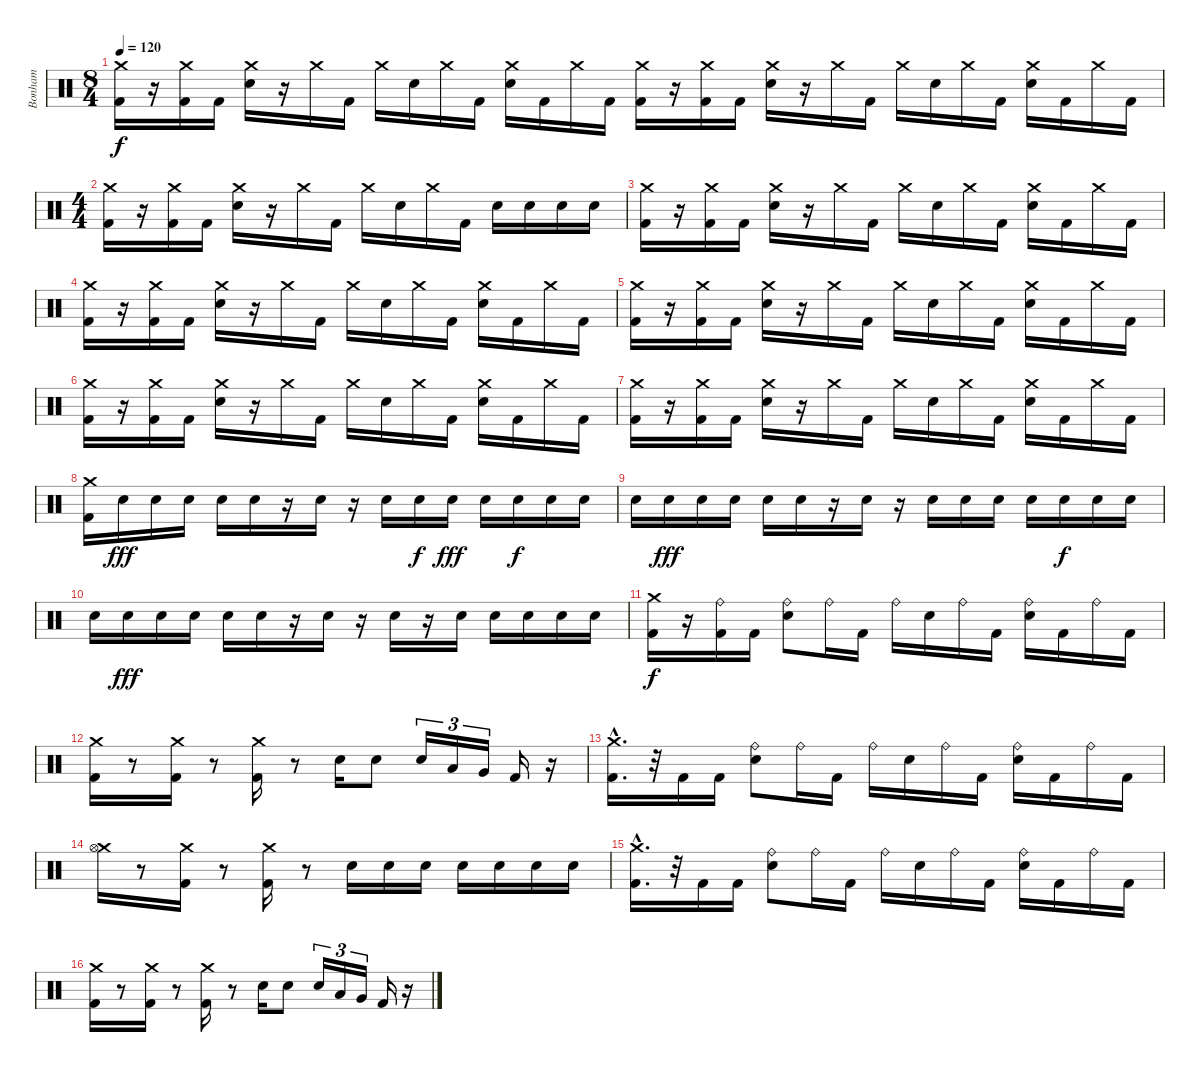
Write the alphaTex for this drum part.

\track ("Bonham" "Bonham") {instrument percussion}
\staff {score}
\articulation defaults
\ts (8 4)
\tempo 120
\clef neutral
\ks c
("Kick (hit) 2" "Crash medium (hit)").16{dy f} r.16 ("Crash medium (hit)" "Kick (hit) 2").16 "Kick (hit) 2".16 ("Crash medium (hit)" "Electric Snare (hit)").16 r.16 "Crash medium (hit)".16 "Kick (hit) 2".16 "Crash medium (hit)".16 "Electric Snare (hit)".16 "Crash medium (hit)".16 "Kick (hit) 2".16 ("Crash medium (hit)" "Electric Snare (hit)").16 "Kick (hit) 2".16 "Crash medium (hit)".16 "Kick (hit) 2".16 ("Kick (hit) 2" "Crash medium (hit)").16 r.16 ("Crash medium (hit)" "Kick (hit) 2").16 "Kick (hit) 2".16 ("Crash medium (hit)" "Electric Snare (hit)").16 r.16 "Crash medium (hit)".16 "Kick (hit) 2".16 "Crash medium (hit)".16 "Electric Snare (hit)".16 "Crash medium (hit)".16 "Kick (hit) 2".16 ("Crash medium (hit)" "Electric Snare (hit)").16 "Kick (hit) 2".16 "Crash medium (hit)".16 "Kick (hit) 2".16 |
\ts (4 4)
("Kick (hit) 2" "Crash medium (hit)").16 r.16 ("Crash medium (hit)" "Kick (hit) 2").16 "Kick (hit) 2".16 ("Crash medium (hit)" "Electric Snare (hit)").16 r.16 "Crash medium (hit)".16 "Kick (hit) 2".16 "Crash medium (hit)".16 "Electric Snare (hit)".16 "Crash medium (hit)".16 "Kick (hit) 2".16 "Electric Snare (hit)".16 "Electric Snare (hit)".16 "Electric Snare (hit)".16 "Electric Snare (hit)".16 |
("Crash medium (hit)" "Kick (hit) 2").16 r.16 ("Crash medium (hit)" "Kick (hit) 2").16 "Kick (hit) 2".16 ("Crash medium (hit)" "Electric Snare (hit)").16 r.16 "Crash medium (hit)".16 "Kick (hit) 2".16 "Crash medium (hit)".16 "Electric Snare (hit)".16 "Crash medium (hit)".16 "Kick (hit) 2".16 ("Crash medium (hit)" "Electric Snare (hit)").16 "Kick (hit) 2".16 "Crash medium (hit)".16 "Kick (hit) 2".16 |
("Kick (hit) 2" "Crash medium (hit)").16 r.16 ("Crash medium (hit)" "Kick (hit) 2").16 "Kick (hit) 2".16 ("Crash medium (hit)" "Electric Snare (hit)").16 r.16 "Crash medium (hit)".16 "Kick (hit) 2".16 "Crash medium (hit)".16 "Electric Snare (hit)".16 "Crash medium (hit)".16 "Kick (hit) 2".16 ("Crash medium (hit)" "Electric Snare (hit)").16 "Kick (hit) 2".16 "Crash medium (hit)".16 "Kick (hit) 2".16 |
("Crash medium (hit)" "Kick (hit) 2").16 r.16 ("Crash medium (hit)" "Kick (hit) 2").16 "Kick (hit) 2".16 ("Crash medium (hit)" "Electric Snare (hit)").16 r.16 "Crash medium (hit)".16 "Kick (hit) 2".16 "Crash medium (hit)".16 "Electric Snare (hit)".16 "Crash medium (hit)".16 "Kick (hit) 2".16 ("Crash medium (hit)" "Electric Snare (hit)").16 "Kick (hit) 2".16 "Crash medium (hit)".16 "Kick (hit) 2".16 |
("Crash medium (hit)" "Kick (hit) 2").16 r.16 ("Crash medium (hit)" "Kick (hit) 2").16 "Kick (hit) 2".16 ("Crash medium (hit)" "Electric Snare (hit)").16 r.16 "Crash medium (hit)".16 "Kick (hit) 2".16 "Crash medium (hit)".16 "Electric Snare (hit)".16 "Crash medium (hit)".16 "Kick (hit) 2".16 ("Crash medium (hit)" "Electric Snare (hit)").16 "Kick (hit) 2".16 "Crash medium (hit)".16 "Kick (hit) 2".16 |
("Kick (hit) 2" "Crash medium (hit)").16 r.16 ("Crash medium (hit)" "Kick (hit) 2").16 "Kick (hit) 2".16 ("Crash medium (hit)" "Electric Snare (hit)").16 r.16 "Crash medium (hit)".16 "Kick (hit) 2".16 "Crash medium (hit)".16 "Electric Snare (hit)".16 "Crash medium (hit)".16 "Kick (hit) 2".16 ("Crash medium (hit)" "Electric Snare (hit)").16 "Kick (hit) 2".16 "Crash medium (hit)".16 "Kick (hit) 2".16 |
("Crash medium (hit)" "Kick (hit) 2").16 "Electric Snare (hit)".16{dy fff} "Electric Snare (hit)".16 "Electric Snare (hit)".16 "Electric Snare (hit)".16 "Electric Snare (hit)".16 r.16 "Electric Snare (hit)".16 r.16 "Electric Snare (hit)".16 "Electric Snare (hit)".16{dy f} "Electric Snare (hit)".16{dy fff} "Electric Snare (hit)".16 "Electric Snare (hit)".16{dy f} "Electric Snare (hit)".16 "Electric Snare (hit)".16 |
"Electric Snare (hit)".16 "Electric Snare (hit)".16{dy fff} "Electric Snare (hit)".16 "Electric Snare (hit)".16 "Electric Snare (hit)".16 "Electric Snare (hit)".16 r.16 "Electric Snare (hit)".16 r.16 "Electric Snare (hit)".16 "Electric Snare (hit)".16 "Electric Snare (hit)".16 "Electric Snare (hit)".16 "Electric Snare (hit)".16{dy f} "Electric Snare (hit)".16 "Electric Snare (hit)".16 |
"Electric Snare (hit)".16 "Electric Snare (hit)".16{dy fff} "Electric Snare (hit)".16 "Electric Snare (hit)".16 "Electric Snare (hit)".16 "Electric Snare (hit)".16 r.16 "Electric Snare (hit)".16 r.16 "Electric Snare (hit)".16 r.16 "Electric Snare (hit)".16 "Electric Snare (hit)".16 "Electric Snare (hit)".16 "Electric Snare (hit)".16 "Electric Snare (hit)".16 |
("Kick (hit) 2" "Crash medium (hit)").16{dy f} r.16 ("Ride (bell)" "Kick (hit) 2").16 "Kick (hit) 2".16 ("Ride (bell)" "Electric Snare (hit)").8 "Ride (bell)".16 "Kick (hit) 2".16 "Ride (bell)".16 "Electric Snare (hit)".16 "Ride (bell)".16 "Kick (hit) 2".16 ("Ride (bell)" "Electric Snare (hit)").16 "Kick (hit) 2".16 "Ride (bell)".16 "Kick (hit) 2".16 |
("Kick (hit) 2" "Crash medium (hit)").16 r.8 ("Kick (hit) 2" "Crash medium (hit)").16 r.8 ("Kick (hit) 2" "Crash medium (hit)").16 r.8 "Electric Snare (hit)".16 "Electric Snare (hit)".8 "Electric Snare (hit)".16{tu (3 2)} "Low Tom (hit)".16{tu (3 2)} "Very Low Tom (hit)".16{tu (3 2)} "Kick (hit) 2".16 r.16 |
("Kick (hit) 2"{hac} "Crash medium (hit)"{hac}).16{d} r.32 "Kick (hit) 2".16 "Kick (hit) 2".16 ("Ride (bell)" "Electric Snare (hit)").8 "Ride (bell)".16 "Kick (hit) 2".16 "Ride (bell)".16 "Electric Snare (hit)".16 "Ride (bell)".16 "Kick (hit) 2".16 ("Ride (bell)" "Electric Snare (hit)").16 "Kick (hit) 2".16 "Ride (bell)".16 "Kick (hit) 2".16 |
("Crash medium (hit)" "Hi-Hat (open)").16 r.8 ("Kick (hit) 2" "Crash medium (hit)").16 r.8 ("Kick (hit) 2" "Crash medium (hit)").16 r.8 "Electric Snare (hit)".16 "Electric Snare (hit)".16 "Electric Snare (hit)".16 "Electric Snare (hit)".16 "Electric Snare (hit)".16 "Electric Snare (hit)".16 "Electric Snare (hit)".16 |
("Kick (hit) 2"{hac} "Crash medium (hit)"{hac}).16{d} r.32 "Kick (hit) 2".16 "Kick (hit) 2".16 ("Ride (bell)" "Electric Snare (hit)").8 "Ride (bell)".16 "Kick (hit) 2".16 "Ride (bell)".16 "Electric Snare (hit)".16 "Ride (bell)".16 "Kick (hit) 2".16 ("Ride (bell)" "Electric Snare (hit)").16 "Kick (hit) 2".16 "Ride (bell)".16 "Kick (hit) 2".16 |
("Crash medium (hit)" "Kick (hit) 2").16 r.8 ("Kick (hit) 2" "Crash medium (hit)").16 r.8 ("Kick (hit) 2" "Crash medium (hit)").16 r.8 "Electric Snare (hit)".16 "Electric Snare (hit)".8 "Electric Snare (hit)".16{tu (3 2)} "Low Tom (hit)".16{tu (3 2)} "Very Low Tom (hit)".16{tu (3 2)} "Kick (hit) 2".16 r.16
